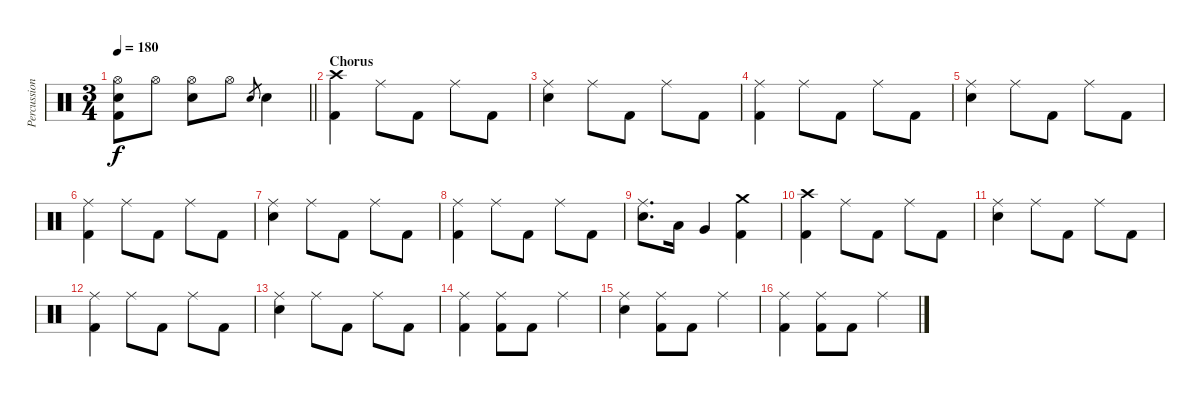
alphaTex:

\track ("Percussion" "Percussion") {instrument percussion}
\staff {score}
\articulation defaults
\ts (3 4)
\tempo 180
\clef neutral
\barLineRight lightlight
\ks c
("Hi-Hat (open)" "Electric Snare (hit)" "Kick (hit) 2").8{dy f} "Hi-Hat (open)".8 ("Hi-Hat (open)" "Electric Snare (hit)").8 "Hi-Hat (open)".8 "Electric Snare (hit)".8{gr} "Electric Snare (hit)".4 |
\section ("" "Chorus")
("Crash high (hit)" "Kick (hit) 2").4 "Ride (middle)".8 "Kick (hit) 2".8 "Ride (middle)".8 "Kick (hit) 2".8 |
("Ride (middle)" "Electric Snare (hit)").4 "Ride (middle)".8 "Kick (hit) 2".8 "Ride (middle)".8 "Kick (hit) 2".8 |
("Ride (middle)" "Kick (hit) 2").4 "Ride (middle)".8 "Kick (hit) 2".8 "Ride (middle)".8 "Kick (hit) 2".8 |
("Ride (middle)" "Electric Snare (hit)").4 "Ride (middle)".8 "Kick (hit) 2".8 "Ride (middle)".8 "Kick (hit) 2".8 |
("Ride (middle)" "Kick (hit) 2").4 "Ride (middle)".8 "Kick (hit) 2".8 "Ride (middle)".8 "Kick (hit) 2".8 |
("Ride (middle)" "Electric Snare (hit)").4 "Ride (middle)".8 "Kick (hit) 2".8 "Ride (middle)".8 "Kick (hit) 2".8 |
("Ride (middle)" "Kick (hit) 2").4 "Ride (middle)".8 "Kick (hit) 2".8 "Ride (middle)".8 "Kick (hit) 2".8 |
("Ride (middle)" "Electric Snare (hit)").8{d} "Low Tom (hit)".16 "Very Low Tom (hit)".4 ("Crash medium (hit)" "Kick (hit) 2").4 |
("Crash high (hit)" "Kick (hit) 2").4 "Ride (middle)".8 "Kick (hit) 2".8 "Ride (middle)".8 "Kick (hit) 2".8 |
("Ride (middle)" "Electric Snare (hit)").4 "Ride (middle)".8 "Kick (hit) 2".8 "Ride (middle)".8 "Kick (hit) 2".8 |
("Ride (middle)" "Kick (hit) 2").4 "Ride (middle)".8 "Kick (hit) 2".8 "Ride (middle)".8 "Kick (hit) 2".8 |
("Ride (middle)" "Electric Snare (hit)").4 "Ride (middle)".8 "Kick (hit) 2".8 "Ride (middle)".8 "Kick (hit) 2".8 |
("Ride (middle)" "Kick (hit) 2").4 ("Ride (middle)" "Kick (hit) 2").8 "Kick (hit) 2".8 "Ride (middle)".4 |
("Ride (middle)" "Electric Snare (hit)").4 ("Ride (middle)" "Kick (hit) 2").8 "Kick (hit) 2".8 "Ride (middle)".4 |
("Ride (middle)" "Kick (hit) 2").4 ("Ride (middle)" "Kick (hit) 2").8 "Kick (hit) 2".8 "Ride (middle)".4
